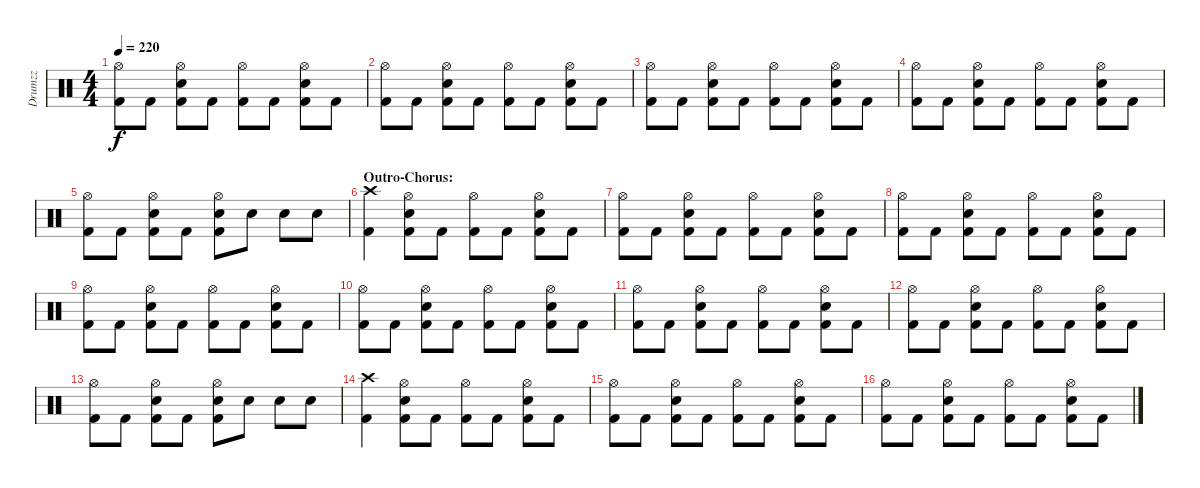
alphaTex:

\track ("Drumzz" "Drumzz") {instrument percussion}
\staff {score}
\articulation defaults
\ts (4 4)
\tempo 220
\clef neutral
\ks c
("Hi-Hat (open)" "Kick (hit) 2").8{dy f} "Kick (hit) 2".8 ("Hi-Hat (open)" "Electric Snare (hit)" "Kick (hit) 2").8 "Kick (hit) 2".8 ("Hi-Hat (open)" "Kick (hit) 2").8 "Kick (hit) 2".8 ("Hi-Hat (open)" "Electric Snare (hit)" "Kick (hit) 2").8 "Kick (hit) 2".8 |
("Hi-Hat (open)" "Kick (hit) 2").8 "Kick (hit) 2".8 ("Hi-Hat (open)" "Electric Snare (hit)" "Kick (hit) 2").8 "Kick (hit) 2".8 ("Hi-Hat (open)" "Kick (hit) 2").8 "Kick (hit) 2".8 ("Hi-Hat (open)" "Electric Snare (hit)" "Kick (hit) 2").8 "Kick (hit) 2".8 |
("Hi-Hat (open)" "Kick (hit) 2").8 "Kick (hit) 2".8 ("Hi-Hat (open)" "Electric Snare (hit)" "Kick (hit) 2").8 "Kick (hit) 2".8 ("Hi-Hat (open)" "Kick (hit) 2").8 "Kick (hit) 2".8 ("Hi-Hat (open)" "Electric Snare (hit)" "Kick (hit) 2").8 "Kick (hit) 2".8 |
("Hi-Hat (open)" "Kick (hit) 2").8 "Kick (hit) 2".8 ("Hi-Hat (open)" "Electric Snare (hit)" "Kick (hit) 2").8 "Kick (hit) 2".8 ("Hi-Hat (open)" "Kick (hit) 2").8 "Kick (hit) 2".8 ("Hi-Hat (open)" "Electric Snare (hit)" "Kick (hit) 2").8 "Kick (hit) 2".8 |
("Hi-Hat (open)" "Kick (hit) 2").8 "Kick (hit) 2".8 ("Hi-Hat (open)" "Electric Snare (hit)" "Kick (hit) 2").8 "Kick (hit) 2".8 ("Hi-Hat (open)" "Electric Snare (hit)" "Kick (hit) 2").8 "Electric Snare (hit)".8 "Electric Snare (hit)".8 "Electric Snare (hit)".8 |
\section ("" "Outro-Chorus:")
("Crash high (hit)" "Kick (hit) 2").4 ("Hi-Hat (open)" "Electric Snare (hit)" "Kick (hit) 2").8 "Kick (hit) 2".8 ("Hi-Hat (open)" "Kick (hit) 2").8 "Kick (hit) 2".8 ("Hi-Hat (open)" "Electric Snare (hit)" "Kick (hit) 2").8 "Kick (hit) 2".8 |
("Hi-Hat (open)" "Kick (hit) 2").8 "Kick (hit) 2".8 ("Hi-Hat (open)" "Electric Snare (hit)" "Kick (hit) 2").8 "Kick (hit) 2".8 ("Hi-Hat (open)" "Kick (hit) 2").8 "Kick (hit) 2".8 ("Hi-Hat (open)" "Electric Snare (hit)" "Kick (hit) 2").8 "Kick (hit) 2".8 |
("Hi-Hat (open)" "Kick (hit) 2").8 "Kick (hit) 2".8 ("Hi-Hat (open)" "Electric Snare (hit)" "Kick (hit) 2").8 "Kick (hit) 2".8 ("Hi-Hat (open)" "Kick (hit) 2").8 "Kick (hit) 2".8 ("Hi-Hat (open)" "Electric Snare (hit)" "Kick (hit) 2").8 "Kick (hit) 2".8 |
("Hi-Hat (open)" "Kick (hit) 2").8 "Kick (hit) 2".8 ("Hi-Hat (open)" "Electric Snare (hit)" "Kick (hit) 2").8 "Kick (hit) 2".8 ("Hi-Hat (open)" "Kick (hit) 2").8 "Kick (hit) 2".8 ("Hi-Hat (open)" "Electric Snare (hit)" "Kick (hit) 2").8 "Kick (hit) 2".8 |
("Hi-Hat (open)" "Kick (hit) 2").8 "Kick (hit) 2".8 ("Hi-Hat (open)" "Electric Snare (hit)" "Kick (hit) 2").8 "Kick (hit) 2".8 ("Hi-Hat (open)" "Kick (hit) 2").8 "Kick (hit) 2".8 ("Hi-Hat (open)" "Electric Snare (hit)" "Kick (hit) 2").8 "Kick (hit) 2".8 |
("Hi-Hat (open)" "Kick (hit) 2").8 "Kick (hit) 2".8 ("Hi-Hat (open)" "Electric Snare (hit)" "Kick (hit) 2").8 "Kick (hit) 2".8 ("Hi-Hat (open)" "Kick (hit) 2").8 "Kick (hit) 2".8 ("Hi-Hat (open)" "Electric Snare (hit)" "Kick (hit) 2").8 "Kick (hit) 2".8 |
("Hi-Hat (open)" "Kick (hit) 2").8 "Kick (hit) 2".8 ("Hi-Hat (open)" "Electric Snare (hit)" "Kick (hit) 2").8 "Kick (hit) 2".8 ("Hi-Hat (open)" "Kick (hit) 2").8 "Kick (hit) 2".8 ("Hi-Hat (open)" "Electric Snare (hit)" "Kick (hit) 2").8 "Kick (hit) 2".8 |
("Hi-Hat (open)" "Kick (hit) 2").8 "Kick (hit) 2".8 ("Hi-Hat (open)" "Electric Snare (hit)" "Kick (hit) 2").8 "Kick (hit) 2".8 ("Hi-Hat (open)" "Electric Snare (hit)" "Kick (hit) 2").8 "Electric Snare (hit)".8 "Electric Snare (hit)".8 "Electric Snare (hit)".8 |
("Crash high (hit)" "Kick (hit) 2").4 ("Hi-Hat (open)" "Electric Snare (hit)" "Kick (hit) 2").8 "Kick (hit) 2".8 ("Hi-Hat (open)" "Kick (hit) 2").8 "Kick (hit) 2".8 ("Hi-Hat (open)" "Electric Snare (hit)" "Kick (hit) 2").8 "Kick (hit) 2".8 |
("Hi-Hat (open)" "Kick (hit) 2").8 "Kick (hit) 2".8 ("Hi-Hat (open)" "Electric Snare (hit)" "Kick (hit) 2").8 "Kick (hit) 2".8 ("Hi-Hat (open)" "Kick (hit) 2").8 "Kick (hit) 2".8 ("Hi-Hat (open)" "Electric Snare (hit)" "Kick (hit) 2").8 "Kick (hit) 2".8 |
("Hi-Hat (open)" "Kick (hit) 2").8 "Kick (hit) 2".8 ("Hi-Hat (open)" "Electric Snare (hit)" "Kick (hit) 2").8 "Kick (hit) 2".8 ("Hi-Hat (open)" "Kick (hit) 2").8 "Kick (hit) 2".8 ("Hi-Hat (open)" "Electric Snare (hit)" "Kick (hit) 2").8 "Kick (hit) 2".8
